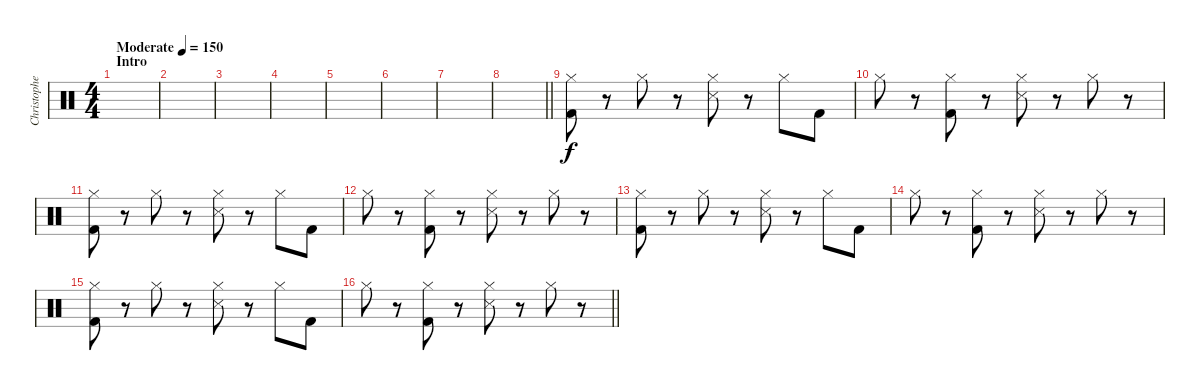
\track ("Christopher" "Christophe") {instrument percussion}
\staff {score}
\articulation defaults
\ts (4 4)
\section ("" "Intro")
\tempo (150 "Moderate")
\clef neutral
\ks c
|
|
|
|
|
|
|
\barLineRight lightlight
|
("Hi-Hat (closed)" "Kick (hit) 2").8 r.8 "Hi-Hat (closed)".8 r.8 ("Hi-Hat (closed)" "Snare (side stick) 3").8 r.8 "Hi-Hat (closed)".8 "Kick (hit) 2".8 |
"Hi-Hat (closed)".8 r.8 ("Hi-Hat (closed)" "Kick (hit) 2").8 r.8 ("Hi-Hat (closed)" "Snare (side stick) 3").8 r.8 "Hi-Hat (closed)".8 r.8 |
("Hi-Hat (closed)" "Kick (hit) 2").8 r.8 "Hi-Hat (closed)".8 r.8 ("Hi-Hat (closed)" "Snare (side stick) 3").8 r.8 "Hi-Hat (closed)".8 "Kick (hit) 2".8 |
"Hi-Hat (closed)".8 r.8 ("Hi-Hat (closed)" "Kick (hit) 2").8 r.8 ("Hi-Hat (closed)" "Snare (side stick) 3").8 r.8 "Hi-Hat (closed)".8 r.8 |
("Hi-Hat (closed)" "Kick (hit) 2").8 r.8 "Hi-Hat (closed)".8 r.8 ("Hi-Hat (closed)" "Snare (side stick) 3").8 r.8 "Hi-Hat (closed)".8 "Kick (hit) 2".8 |
"Hi-Hat (closed)".8 r.8 ("Hi-Hat (closed)" "Kick (hit) 2").8 r.8 ("Hi-Hat (closed)" "Snare (side stick) 3").8 r.8 "Hi-Hat (closed)".8 r.8 |
("Hi-Hat (closed)" "Kick (hit) 2").8 r.8 "Hi-Hat (closed)".8 r.8 ("Hi-Hat (closed)" "Snare (side stick) 3").8 r.8 "Hi-Hat (closed)".8 "Kick (hit) 2".8 |
\barLineRight lightlight "Hi-Hat (closed)".8
r.8 ("Hi-Hat (closed)" "Kick (hit) 2").8 r.8 ("Hi-Hat (closed)" "Snare (side stick) 3").8 r.8 "Hi-Hat (closed)".8 r.8
